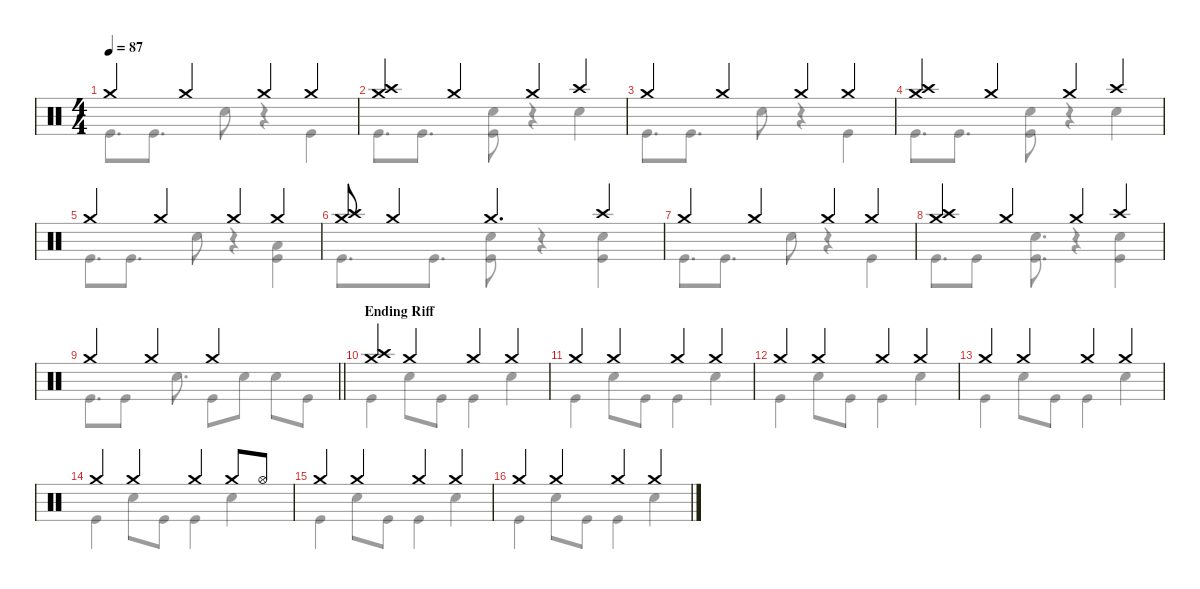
\defaultSystemsLayout 4
\hideDynamics
\bracketExtendMode nobrackets
\singleTrackTrackNamePolicy hidden
\multiTrackTrackNamePolicy hidden
\firstSystemTrackNameMode fullname
\otherSystemsTrackNameOrientation horizontal
\track ("Drums" "drm.") {instrument percussion}
\staff {score}
\articulation defaults
\voice
\ts (4 4)
\tempo 87
\clef neutral
\ks c "Crash medium (hit)".4{dy f beam Up} "Crash medium (hit)".4{beam Up} "Crash medium (hit)".4{beam Up} "Crash medium (hit)".4{beam Up}
|
("Crash medium (hit)" "Crash high (hit)").4{beam Up} "Crash medium (hit)".4{beam Up} "Crash medium (hit)".4{beam Up} "Crash high (hit)".4{beam Up} |
"Crash medium (hit)".4{beam Up} "Crash medium (hit)".4{beam Up} "Crash medium (hit)".4{beam Up} "Crash medium (hit)".4{beam Up} |
("Crash medium (hit)" "Crash high (hit)").4{beam Up} "Crash medium (hit)".4{beam Up} "Crash medium (hit)".4{beam Up} "Crash high (hit)".4{beam Up} |
"Crash medium (hit)".4{beam Up} "Crash medium (hit)".4{beam Up} "Crash medium (hit)".4{beam Up} "Crash medium (hit)".4{beam Up} |
("Crash medium (hit)" "Crash high (hit)").8{beam Up} "Crash medium (hit)".4{beam Up} "Crash medium (hit)".4{d beam Up} "Crash high (hit)".4{beam Up} |
"Crash medium (hit)".4{beam Up} "Crash medium (hit)".4{beam Up} "Crash medium (hit)".4{beam Up} "Crash medium (hit)".4{beam Up} |
("Crash medium (hit)" "Crash high (hit)").4{beam Up} "Crash medium (hit)".4{beam Up} "Crash medium (hit)".4{beam Up} "Crash high (hit)".4{beam Up} |
\barLineRight lightlight "Crash medium (hit)".4{beam Up} "Crash medium (hit)".4{beam Up} "Crash medium (hit)".2{beam Up}
|
\section ("" "Ending Riff")
("Crash medium (hit)" "Crash high (hit)").4{beam Up} "Crash medium (hit)".4{beam Up} "Crash medium (hit)".4{beam Up} "Crash medium (hit)".4{beam Up} |
"Crash medium (hit)".4{beam Up} "Crash medium (hit)".4{beam Up} "Crash medium (hit)".4{beam Up} "Crash medium (hit)".4{beam Up} |
"Crash medium (hit)".4{beam Up} "Crash medium (hit)".4{beam Up} "Crash medium (hit)".4{beam Up} "Crash medium (hit)".4{beam Up} |
"Crash medium (hit)".4{beam Up} "Crash medium (hit)".4{beam Up} "Crash medium (hit)".4{beam Up} "Crash medium (hit)".4{beam Up} |
"Crash medium (hit)".4{beam Up} "Crash medium (hit)".4{beam Up} "Crash medium (hit)".4{beam Up} "Crash medium (hit)".8{beam Up} "Hi-Hat (open)".8{beam Up} |
"Crash medium (hit)".4{beam Up} "Crash medium (hit)".4{beam Up} "Crash medium (hit)".4{beam Up} "Crash medium (hit)".4{beam Up} |
"Crash medium (hit)".4{beam Up} "Crash medium (hit)".4{beam Up} "Crash medium (hit)".4{beam Up} "Crash medium (hit)".4{beam Up}
\voice
\clef neutral
\ottava regular
\simile none
\ks c "Kick (hit)".8{d dy f beam Down} "Kick (hit)".8{d beam Down} "Snare (hit) 2".8{beam Down}
r.4{beam Down} "Kick (hit)".4{beam Down} |
"Kick (hit)".8{d beam Down} "Kick (hit)".8{d beam Down} ("Snare (hit) 2" "Kick (hit)").8{beam Down} r.4{beam Down} "Snare (hit) 2".4{beam Down} |
"Kick (hit)".8{d beam Down} "Kick (hit)".8{d beam Down} "Snare (hit) 2".8{beam Down} r.4{beam Down} "Kick (hit)".4{beam Down} |
"Kick (hit)".8{d beam Down} "Kick (hit)".8{d beam Down} ("Snare (hit) 2" "Kick (hit)").8{beam Down} r.4{beam Down} "Snare (hit) 2".4{beam Down} |
"Kick (hit)".8{d beam Down} "Kick (hit)".8{d beam Down} "Snare (hit) 2".8{beam Down} r.4{beam Down} ("Low Floor Tom (hit)" "Kick (hit)").4{beam Down} |
"Kick (hit)".8{d beam Down} "Kick (hit)".8{d beam Down} ("Snare (hit) 2" "Kick (hit)").8{beam Down} r.4{beam Down} ("Snare (hit) 2" "Kick (hit)").4{beam Down} |
"Kick (hit)".8{d beam Down} "Kick (hit)".8{d beam Down} "Snare (hit) 2".8{beam Down} r.4{beam Down} "Kick (hit)".4{beam Down} |
"Kick (hit)".8{d beam Down} "Kick (hit)".8{beam Down} ("Snare (hit) 2" "Kick (hit)").8{d beam Down} r.4{beam Down} ("Snare (hit) 2" "Kick (hit)").4{beam Down} |
\barLineRight lightlight "Kick (hit)".8{d beam Down} "Kick (hit)".8{beam Down} "Snare (hit) 2".8{d beam Down} "Kick (hit)".8{beam Down} "Snare (hit) 2".8{beam Down} "Snare (hit) 2".8{beam Down} "Kick (hit)".8{beam Down}
|
"Kick (hit)".4{beam Down} "Snare (hit) 2".8{beam Down} "Kick (hit)".8{beam Down} "Kick (hit)".4{beam Down} "Snare (hit) 2".4{beam Down} |
"Kick (hit)".4{beam Down} "Snare (hit) 2".8{beam Down} "Kick (hit)".8{beam Down} "Kick (hit)".4{beam Down} "Snare (hit) 2".4{beam Down} |
"Kick (hit)".4{beam Down} "Snare (hit) 2".8{beam Down} "Kick (hit)".8{beam Down} "Kick (hit)".4{beam Down} "Snare (hit) 2".4{beam Down} |
"Kick (hit)".4{beam Down} "Snare (hit) 2".8{beam Down} "Kick (hit)".8{beam Down} "Kick (hit)".4{beam Down} "Snare (hit) 2".4{beam Down} |
"Kick (hit)".4{beam Down} "Snare (hit) 2".8{beam Down} "Kick (hit)".8{beam Down} "Kick (hit)".4{beam Down} "Snare (hit) 2".4{beam Down} |
"Kick (hit)".4{beam Down} "Snare (hit) 2".8{beam Down} "Kick (hit)".8{beam Down} "Kick (hit)".4{beam Down} "Snare (hit) 2".4{beam Down} |
"Kick (hit)".4{beam Down} "Snare (hit) 2".8{beam Down} "Kick (hit)".8{beam Down} "Kick (hit)".4{beam Down} "Snare (hit) 2".4{beam Down}
